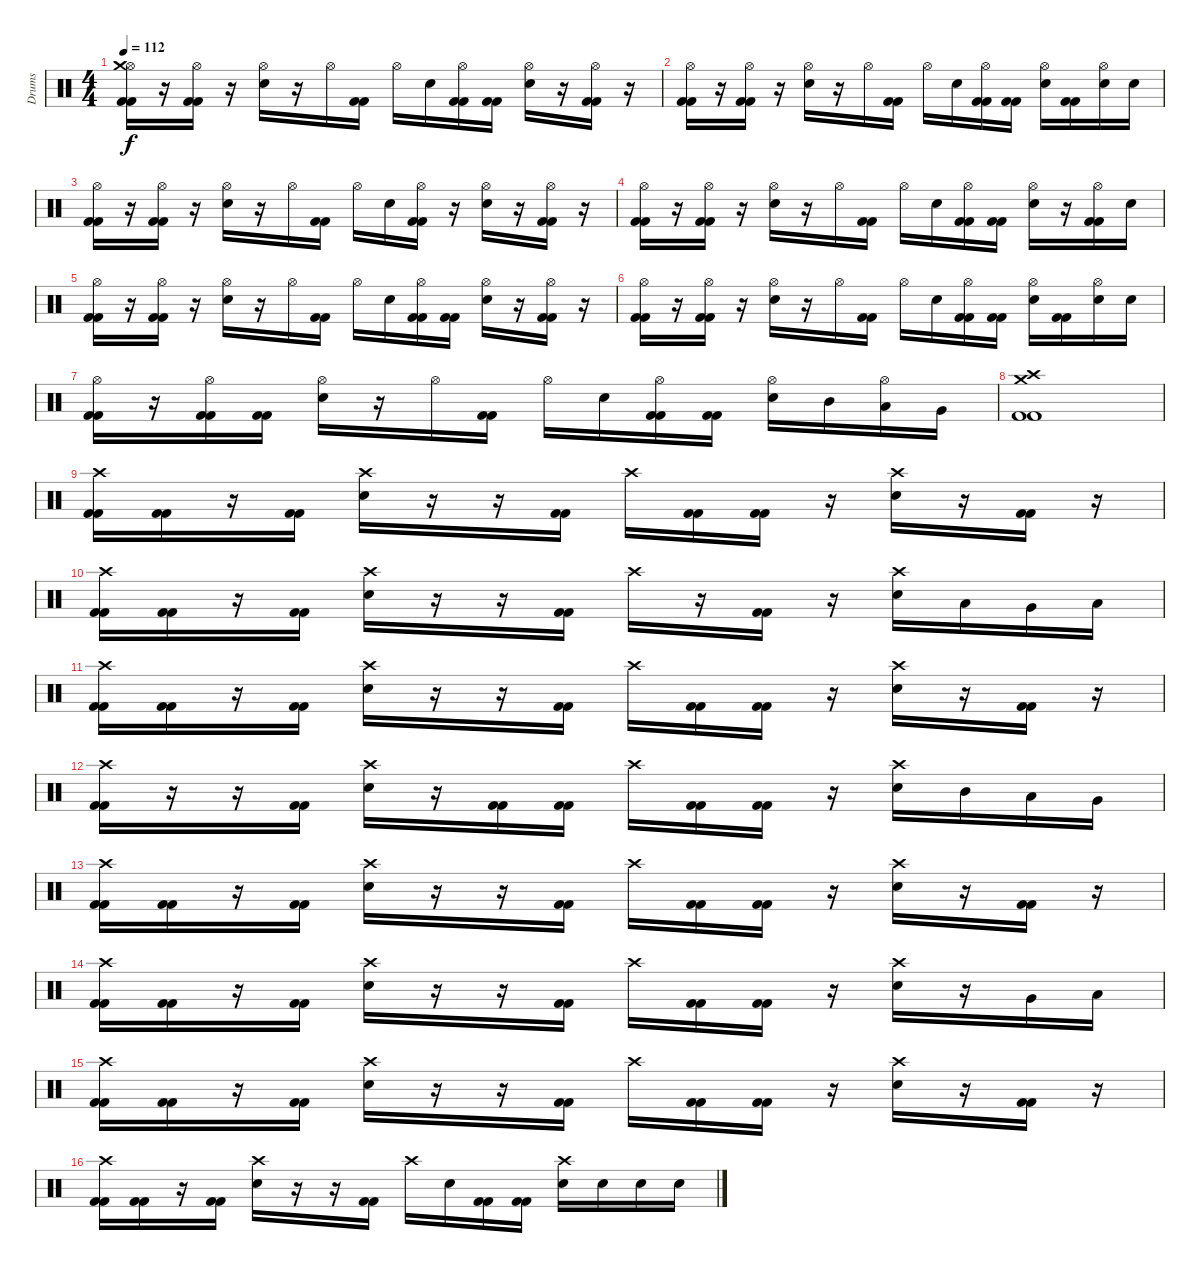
\track ("Drums" "Drums") {instrument percussion}
\staff {score}
\articulation defaults
\ts (4 4)
\tempo 112
\clef neutral
\ks c
("Hi-Hat (open)" "Crash medium (hit)" "Kick (hit) 2" "Kick (hit) 2").16{dy f} r.16 ("Hi-Hat (open)" "Kick (hit) 2" "Kick (hit) 2").16 r.16 ("Hi-Hat (open)" "Electric Snare (hit)").16 r.16 "Hi-Hat (open)".16 ("Kick (hit) 2" "Kick (hit) 2").16 "Hi-Hat (open)".16 "Electric Snare (hit)".16 ("Hi-Hat (open)" "Kick (hit) 2" "Kick (hit) 2").16 ("Kick (hit) 2" "Kick (hit) 2").16 ("Hi-Hat (open)" "Electric Snare (hit)").16 r.16 ("Hi-Hat (open)" "Kick (hit) 2" "Kick (hit) 2").16 r.16 |
("Hi-Hat (open)" "Kick (hit) 2" "Kick (hit) 2").16 r.16 ("Hi-Hat (open)" "Kick (hit) 2" "Kick (hit) 2").16 r.16 ("Hi-Hat (open)" "Electric Snare (hit)").16 r.16 "Hi-Hat (open)".16 ("Kick (hit) 2" "Kick (hit) 2").16 "Hi-Hat (open)".16 "Electric Snare (hit)".16 ("Hi-Hat (open)" "Kick (hit) 2" "Kick (hit) 2").16 ("Kick (hit) 2" "Kick (hit) 2").16 ("Hi-Hat (open)" "Electric Snare (hit)").16 ("Kick (hit) 2" "Kick (hit) 2").16 ("Hi-Hat (open)" "Electric Snare (hit)").16 "Electric Snare (hit)".16 |
("Hi-Hat (open)" "Kick (hit) 2" "Kick (hit) 2").16 r.16 ("Hi-Hat (open)" "Kick (hit) 2" "Kick (hit) 2").16 r.16 ("Hi-Hat (open)" "Electric Snare (hit)").16 r.16 "Hi-Hat (open)".16 ("Kick (hit) 2" "Kick (hit) 2").16 "Hi-Hat (open)".16 "Electric Snare (hit)".16 ("Hi-Hat (open)" "Kick (hit) 2" "Kick (hit) 2").16 r.16 ("Hi-Hat (open)" "Electric Snare (hit)").16 r.16 ("Hi-Hat (open)" "Kick (hit) 2" "Kick (hit) 2").16 r.16 |
("Hi-Hat (open)" "Kick (hit) 2" "Kick (hit) 2").16 r.16 ("Hi-Hat (open)" "Kick (hit) 2" "Kick (hit) 2").16 r.16 ("Hi-Hat (open)" "Electric Snare (hit)").16 r.16 "Hi-Hat (open)".16 ("Kick (hit) 2" "Kick (hit) 2").16 "Hi-Hat (open)".16 "Electric Snare (hit)".16 ("Hi-Hat (open)" "Kick (hit) 2" "Kick (hit) 2").16 ("Kick (hit) 2" "Kick (hit) 2").16 ("Hi-Hat (open)" "Electric Snare (hit)").16 r.16 ("Hi-Hat (open)" "Kick (hit) 2" "Kick (hit) 2").16 "Electric Snare (hit)".16 |
("Hi-Hat (open)" "Kick (hit) 2" "Kick (hit) 2").16 r.16 ("Hi-Hat (open)" "Kick (hit) 2" "Kick (hit) 2").16 r.16 ("Hi-Hat (open)" "Electric Snare (hit)").16 r.16 "Hi-Hat (open)".16 ("Kick (hit) 2" "Kick (hit) 2").16 "Hi-Hat (open)".16 "Electric Snare (hit)".16 ("Hi-Hat (open)" "Kick (hit) 2" "Kick (hit) 2").16 ("Kick (hit) 2" "Kick (hit) 2").16 ("Hi-Hat (open)" "Electric Snare (hit)").16 r.16 ("Hi-Hat (open)" "Kick (hit) 2" "Kick (hit) 2").16 r.16 |
("Hi-Hat (open)" "Kick (hit) 2" "Kick (hit) 2").16 r.16 ("Hi-Hat (open)" "Kick (hit) 2" "Kick (hit) 2").16 r.16 ("Hi-Hat (open)" "Electric Snare (hit)").16 r.16 "Hi-Hat (open)".16 ("Kick (hit) 2" "Kick (hit) 2").16 "Hi-Hat (open)".16 "Electric Snare (hit)".16 ("Hi-Hat (open)" "Kick (hit) 2" "Kick (hit) 2").16 ("Kick (hit) 2" "Kick (hit) 2").16 ("Hi-Hat (open)" "Electric Snare (hit)").16 ("Kick (hit) 2" "Kick (hit) 2").16 ("Hi-Hat (open)" "Electric Snare (hit)").16 "Electric Snare (hit)".16 |
("Hi-Hat (open)" "Kick (hit) 2" "Kick (hit) 2").16 r.16 ("Hi-Hat (open)" "Kick (hit) 2" "Kick (hit) 2").16 ("Kick (hit) 2" "Kick (hit) 2").16 ("Hi-Hat (open)" "Electric Snare (hit)").16 r.16 "Hi-Hat (open)".16 ("Kick (hit) 2" "Kick (hit) 2").16 "Hi-Hat (open)".16 "Electric Snare (hit)".16 ("Hi-Hat (open)" "Kick (hit) 2" "Kick (hit) 2").16 ("Kick (hit) 2" "Kick (hit) 2").16 ("Hi-Hat (open)" "Electric Snare (hit)").16 "Mid Tom (hit)".16 ("Hi-Hat (open)" "Low Tom (hit)").16 "Very Low Tom (hit)".16 |
("Crash medium (hit)" "Crash high (hit)" "Kick (hit) 2" "Kick (hit) 2").1 |
("Crash high (hit)" "Kick (hit) 2" "Kick (hit) 2").16 ("Kick (hit) 2" "Kick (hit) 2").16 r.16 ("Kick (hit) 2" "Kick (hit) 2").16 ("Crash high (hit)" "Electric Snare (hit)").16 r.16 r.16 ("Kick (hit) 2" "Kick (hit) 2").16 "Crash high (hit)".16 ("Kick (hit) 2" "Kick (hit) 2").16 ("Kick (hit) 2" "Kick (hit) 2").16 r.16 ("Crash high (hit)" "Electric Snare (hit)").16 r.16 ("Kick (hit) 2" "Kick (hit) 2").16 r.16 |
("Crash high (hit)" "Kick (hit) 2" "Kick (hit) 2").16 ("Kick (hit) 2" "Kick (hit) 2").16 r.16 ("Kick (hit) 2" "Kick (hit) 2").16 ("Crash high (hit)" "Electric Snare (hit)").16 r.16 r.16 ("Kick (hit) 2" "Kick (hit) 2").16 "Crash high (hit)".16 r.16 ("Kick (hit) 2" "Kick (hit) 2").16 r.16 ("Crash high (hit)" "Electric Snare (hit)").16 "Low Tom (hit)".16 "Very Low Tom (hit)".16 "Low Floor Tom (hit)".16 |
("Crash high (hit)" "Kick (hit) 2" "Kick (hit) 2").16 ("Kick (hit) 2" "Kick (hit) 2").16 r.16 ("Kick (hit) 2" "Kick (hit) 2").16 ("Crash high (hit)" "Electric Snare (hit)").16 r.16 r.16 ("Kick (hit) 2" "Kick (hit) 2").16 "Crash high (hit)".16 ("Kick (hit) 2" "Kick (hit) 2").16 ("Kick (hit) 2" "Kick (hit) 2").16 r.16 ("Crash high (hit)" "Electric Snare (hit)").16 r.16 ("Kick (hit) 2" "Kick (hit) 2").16 r.16 |
("Crash high (hit)" "Kick (hit) 2" "Kick (hit) 2").16 r.16 r.16 ("Kick (hit) 2" "Kick (hit) 2").16 ("Crash high (hit)" "Electric Snare (hit)").16 r.16 ("Kick (hit) 2" "Kick (hit) 2").16 ("Kick (hit) 2" "Kick (hit) 2").16 "Crash high (hit)".16 ("Kick (hit) 2" "Kick (hit) 2").16 ("Kick (hit) 2" "Kick (hit) 2").16 r.16 ("Crash high (hit)" "Electric Snare (hit)").16 "Mid Tom (hit)".16 "Low Tom (hit)".16 "Very Low Tom (hit)".16 |
("Crash high (hit)" "Kick (hit) 2" "Kick (hit) 2").16 ("Kick (hit) 2" "Kick (hit) 2").16 r.16 ("Kick (hit) 2" "Kick (hit) 2").16 ("Crash high (hit)" "Electric Snare (hit)").16 r.16 r.16 ("Kick (hit) 2" "Kick (hit) 2").16 "Crash high (hit)".16 ("Kick (hit) 2" "Kick (hit) 2").16 ("Kick (hit) 2" "Kick (hit) 2").16 r.16 ("Crash high (hit)" "Electric Snare (hit)").16 r.16 ("Kick (hit) 2" "Kick (hit) 2").16 r.16 |
("Crash high (hit)" "Kick (hit) 2" "Kick (hit) 2").16 ("Kick (hit) 2" "Kick (hit) 2").16 r.16 ("Kick (hit) 2" "Kick (hit) 2").16 ("Crash high (hit)" "Electric Snare (hit)").16 r.16 r.16 ("Kick (hit) 2" "Kick (hit) 2").16 "Crash high (hit)".16 ("Kick (hit) 2" "Kick (hit) 2").16 ("Kick (hit) 2" "Kick (hit) 2").16 r.16 ("Crash high (hit)" "Electric Snare (hit)").16 r.16 "Very Low Tom (hit)".16 "Low Floor Tom (hit)".16 |
("Crash high (hit)" "Kick (hit) 2" "Kick (hit) 2").16 ("Kick (hit) 2" "Kick (hit) 2").16 r.16 ("Kick (hit) 2" "Kick (hit) 2").16 ("Crash high (hit)" "Electric Snare (hit)").16 r.16 r.16 ("Kick (hit) 2" "Kick (hit) 2").16 "Crash high (hit)".16 ("Kick (hit) 2" "Kick (hit) 2").16 ("Kick (hit) 2" "Kick (hit) 2").16 r.16 ("Crash high (hit)" "Electric Snare (hit)").16 r.16 ("Kick (hit) 2" "Kick (hit) 2").16 r.16 |
("Crash high (hit)" "Kick (hit) 2" "Kick (hit) 2").16 ("Kick (hit) 2" "Kick (hit) 2").16 r.16 ("Kick (hit) 2" "Kick (hit) 2").16 ("Crash high (hit)" "Electric Snare (hit)").16 r.16 r.16 ("Kick (hit) 2" "Kick (hit) 2").16 "Crash high (hit)".16 "Electric Snare (hit)".16 ("Kick (hit) 2" "Kick (hit) 2").16 ("Kick (hit) 2" "Kick (hit) 2").16 ("Crash high (hit)" "Electric Snare (hit)").16 "Electric Snare (hit)".16 "Electric Snare (hit)".16 "Electric Snare (hit)".16
